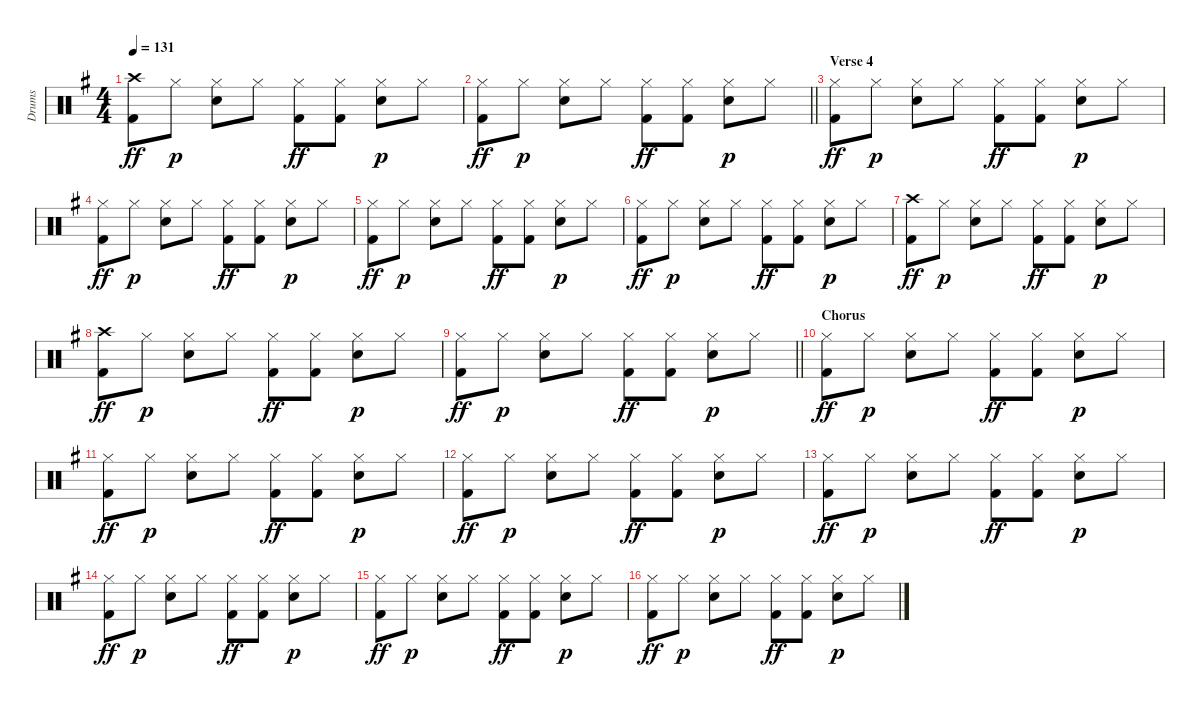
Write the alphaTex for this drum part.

\track ("Drums" "Drums") {instrument percussion}
\staff {score}
\articulation defaults
\ts (4 4)
\tempo 131
\clef neutral
\ks g
("Crash high (hit)" "Kick (hit) 2").8{dy ff} "Hi-Hat (closed)".8{dy p} ("Hi-Hat (closed)" "Snare (hit) 2").8 "Hi-Hat (closed)".8 ("Hi-Hat (closed)" "Kick (hit) 2").8{dy ff} ("Hi-Hat (closed)" "Kick (hit) 2").8 ("Hi-Hat (closed)" "Snare (hit) 2").8{dy p} "Hi-Hat (closed)".8 |
\barLineRight lightlight
("Hi-Hat (closed)" "Kick (hit) 2").8{dy ff} "Hi-Hat (closed)".8{dy p} ("Hi-Hat (closed)" "Snare (hit) 2").8 "Hi-Hat (closed)".8 ("Hi-Hat (closed)" "Kick (hit) 2").8{dy ff} ("Hi-Hat (closed)" "Kick (hit) 2").8 ("Hi-Hat (closed)" "Snare (hit) 2").8{dy p} "Hi-Hat (closed)".8 |
\section ("" "Verse 4")
("Hi-Hat (closed)" "Kick (hit) 2").8{dy ff} "Hi-Hat (closed)".8{dy p} ("Hi-Hat (closed)" "Snare (hit) 2").8 "Hi-Hat (closed)".8 ("Hi-Hat (closed)" "Kick (hit) 2").8{dy ff} ("Hi-Hat (closed)" "Kick (hit) 2").8 ("Hi-Hat (closed)" "Snare (hit) 2").8{dy p} "Hi-Hat (closed)".8 |
("Hi-Hat (closed)" "Kick (hit) 2").8{dy ff} "Hi-Hat (closed)".8{dy p} ("Hi-Hat (closed)" "Snare (hit) 2").8 "Hi-Hat (closed)".8 ("Hi-Hat (closed)" "Kick (hit) 2").8{dy ff} ("Hi-Hat (closed)" "Kick (hit) 2").8 ("Hi-Hat (closed)" "Snare (hit) 2").8{dy p} "Hi-Hat (closed)".8 |
("Hi-Hat (closed)" "Kick (hit) 2").8{dy ff} "Hi-Hat (closed)".8{dy p} ("Hi-Hat (closed)" "Snare (hit) 2").8 "Hi-Hat (closed)".8 ("Hi-Hat (closed)" "Kick (hit) 2").8{dy ff} ("Hi-Hat (closed)" "Kick (hit) 2").8 ("Hi-Hat (closed)" "Snare (hit) 2").8{dy p} "Hi-Hat (closed)".8 |
("Hi-Hat (closed)" "Kick (hit) 2").8{dy ff} "Hi-Hat (closed)".8{dy p} ("Hi-Hat (closed)" "Snare (hit) 2").8 "Hi-Hat (closed)".8 ("Hi-Hat (closed)" "Kick (hit) 2").8{dy ff} ("Hi-Hat (closed)" "Kick (hit) 2").8 ("Hi-Hat (closed)" "Snare (hit) 2").8{dy p} "Hi-Hat (closed)".8 |
("Crash high (hit)" "Kick (hit) 2").8{dy ff} "Hi-Hat (closed)".8{dy p} ("Hi-Hat (closed)" "Snare (hit) 2").8 "Hi-Hat (closed)".8 ("Hi-Hat (closed)" "Kick (hit) 2").8{dy ff} ("Hi-Hat (closed)" "Kick (hit) 2").8 ("Hi-Hat (closed)" "Snare (hit) 2").8{dy p} "Hi-Hat (closed)".8 |
("Crash high (hit)" "Kick (hit) 2").8{dy ff} "Hi-Hat (closed)".8{dy p} ("Hi-Hat (closed)" "Snare (hit) 2").8 "Hi-Hat (closed)".8 ("Hi-Hat (closed)" "Kick (hit) 2").8{dy ff} ("Hi-Hat (closed)" "Kick (hit) 2").8 ("Hi-Hat (closed)" "Snare (hit) 2").8{dy p} "Hi-Hat (closed)".8 |
\barLineRight lightlight
("Hi-Hat (closed)" "Kick (hit) 2").8{dy ff} "Hi-Hat (closed)".8{dy p} ("Hi-Hat (closed)" "Snare (hit) 2").8 "Hi-Hat (closed)".8 ("Hi-Hat (closed)" "Kick (hit) 2").8{dy ff} ("Hi-Hat (closed)" "Kick (hit) 2").8 ("Hi-Hat (closed)" "Snare (hit) 2").8{dy p} "Hi-Hat (closed)".8 |
\section ("" "Chorus")
("Hi-Hat (closed)" "Kick (hit) 2").8{dy ff} "Hi-Hat (closed)".8{dy p} ("Hi-Hat (closed)" "Snare (hit) 2").8 "Hi-Hat (closed)".8 ("Hi-Hat (closed)" "Kick (hit) 2").8{dy ff} ("Hi-Hat (closed)" "Kick (hit) 2").8 ("Hi-Hat (closed)" "Snare (hit) 2").8{dy p} "Hi-Hat (closed)".8 |
("Hi-Hat (closed)" "Kick (hit) 2").8{dy ff} "Hi-Hat (closed)".8{dy p} ("Hi-Hat (closed)" "Snare (hit) 2").8 "Hi-Hat (closed)".8 ("Hi-Hat (closed)" "Kick (hit) 2").8{dy ff} ("Hi-Hat (closed)" "Kick (hit) 2").8 ("Hi-Hat (closed)" "Snare (hit) 2").8{dy p} "Hi-Hat (closed)".8 |
("Hi-Hat (closed)" "Kick (hit) 2").8{dy ff} "Hi-Hat (closed)".8{dy p} ("Hi-Hat (closed)" "Snare (hit) 2").8 "Hi-Hat (closed)".8 ("Hi-Hat (closed)" "Kick (hit) 2").8{dy ff} ("Hi-Hat (closed)" "Kick (hit) 2").8 ("Hi-Hat (closed)" "Snare (hit) 2").8{dy p} "Hi-Hat (closed)".8 |
("Hi-Hat (closed)" "Kick (hit) 2").8{dy ff} "Hi-Hat (closed)".8{dy p} ("Hi-Hat (closed)" "Snare (hit) 2").8 "Hi-Hat (closed)".8 ("Hi-Hat (closed)" "Kick (hit) 2").8{dy ff} ("Hi-Hat (closed)" "Kick (hit) 2").8 ("Hi-Hat (closed)" "Snare (hit) 2").8{dy p} "Hi-Hat (closed)".8 |
("Hi-Hat (closed)" "Kick (hit) 2").8{dy ff} "Hi-Hat (closed)".8{dy p} ("Hi-Hat (closed)" "Snare (hit) 2").8 "Hi-Hat (closed)".8 ("Hi-Hat (closed)" "Kick (hit) 2").8{dy ff} ("Hi-Hat (closed)" "Kick (hit) 2").8 ("Hi-Hat (closed)" "Snare (hit) 2").8{dy p} "Hi-Hat (closed)".8 |
("Hi-Hat (closed)" "Kick (hit) 2").8{dy ff} "Hi-Hat (closed)".8{dy p} ("Hi-Hat (closed)" "Snare (hit) 2").8 "Hi-Hat (closed)".8 ("Hi-Hat (closed)" "Kick (hit) 2").8{dy ff} ("Hi-Hat (closed)" "Kick (hit) 2").8 ("Hi-Hat (closed)" "Snare (hit) 2").8{dy p} "Hi-Hat (closed)".8 |
("Hi-Hat (closed)" "Kick (hit) 2").8{dy ff} "Hi-Hat (closed)".8{dy p} ("Hi-Hat (closed)" "Snare (hit) 2").8 "Hi-Hat (closed)".8 ("Hi-Hat (closed)" "Kick (hit) 2").8{dy ff} ("Hi-Hat (closed)" "Kick (hit) 2").8 ("Hi-Hat (closed)" "Snare (hit) 2").8{dy p} "Hi-Hat (closed)".8
